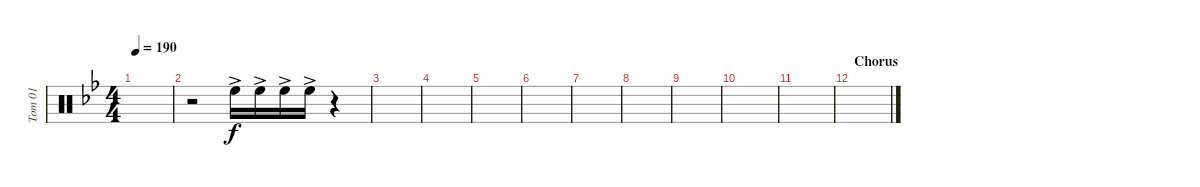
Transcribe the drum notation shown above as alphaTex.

\track ("Tom 01" "Tom 01") {instrument percussion}
\staff {score}
\articulation defaults
\ts (4 4)
\tempo 190
\clef neutral
\ks bb
|
r.2 "High Floor Tom (hit)"{ac}.16 "High Floor Tom (hit)"{ac}.16 "High Floor Tom (hit)"{ac}.16 "High Floor Tom (hit)"{ac}.16 r.4 |
|
|
|
|
|
|
|
|
|
\section ("" "Chorus")
